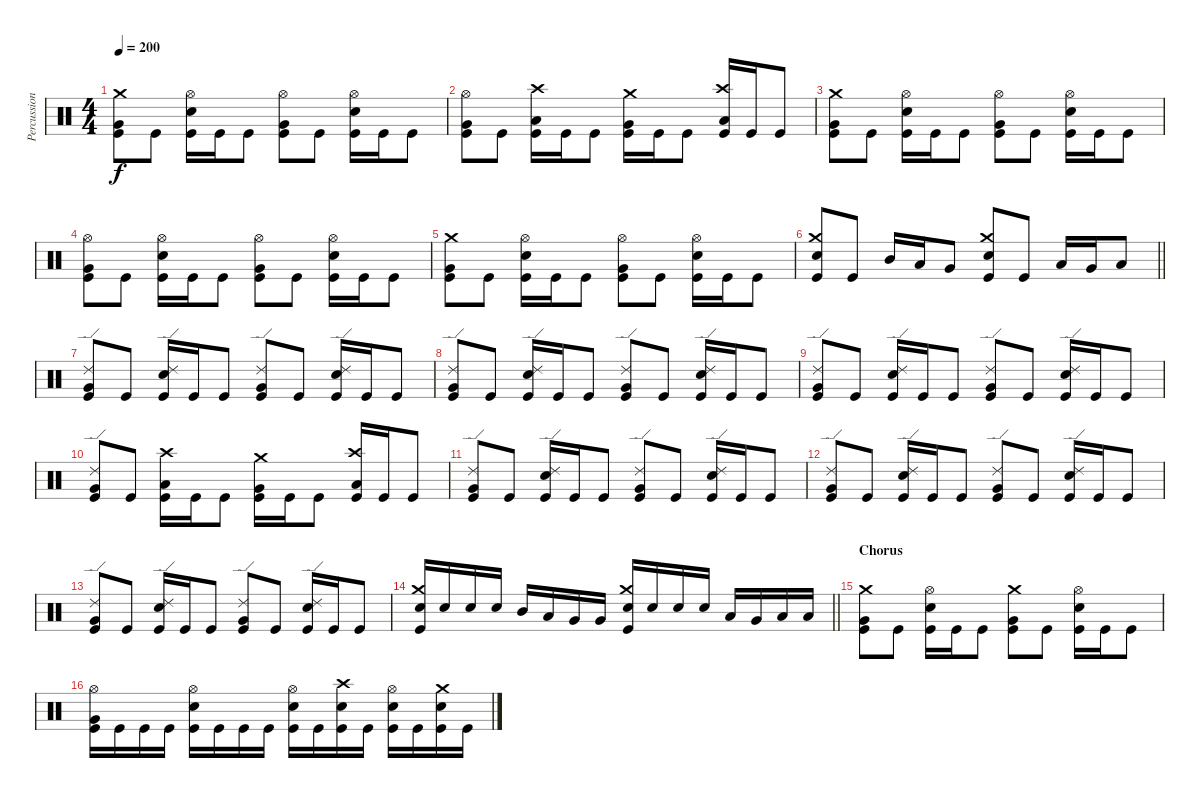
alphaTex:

\track ("Percussion" "Percussion") {instrument percussion}
\staff {score}
\articulation defaults
\ts (4 4)
\tempo 200
\clef neutral
\ks c
("Kick (hit)" "Very Low Tom (hit)" "Crash medium (hit)").8{dy f} "Kick (hit)".8 ("Kick (hit)" "Snare (hit) 2" "Hi-Hat (open)").16 "Kick (hit)".16 "Kick (hit)".8 ("Kick (hit)" "Very Low Tom (hit)" "Hi-Hat (open)").8 "Kick (hit)".8 ("Kick (hit)" "Snare (hit) 2" "Hi-Hat (open)").16 "Kick (hit)".16 "Kick (hit)".8 |
("Kick (hit)" "Very Low Tom (hit)" "Hi-Hat (open)").8 "Kick (hit)".8 ("Low Tom (hit)" "Crash high (hit)" "Kick (hit)").16 "Kick (hit)".16 "Kick (hit)".8 ("Very Low Tom (hit)" "Crash medium (hit)" "Kick (hit)").16 "Kick (hit)".16 "Kick (hit)".8 ("Low Floor Tom (hit)" "Crash high (hit)" "Kick (hit)").16 "Kick (hit)".16 "Kick (hit)".8 |
("Kick (hit)" "Very Low Tom (hit)" "Crash medium (hit)").8 "Kick (hit)".8 ("Kick (hit)" "Snare (hit) 2" "Hi-Hat (open)").16 "Kick (hit)".16 "Kick (hit)".8 ("Kick (hit)" "Very Low Tom (hit)" "Hi-Hat (open)").8 "Kick (hit)".8 ("Kick (hit)" "Snare (hit) 2" "Hi-Hat (open)").16 "Kick (hit)".16 "Kick (hit)".8 |
("Kick (hit)" "Very Low Tom (hit)" "Hi-Hat (open)").8 "Kick (hit)".8 ("Kick (hit)" "Snare (hit) 2" "Hi-Hat (open)").16 "Kick (hit)".16 "Kick (hit)".8 ("Kick (hit)" "Very Low Tom (hit)" "Hi-Hat (open)").8 "Kick (hit)".8 ("Kick (hit)" "Snare (hit) 2" "Hi-Hat (open)").16 "Kick (hit)".16 "Kick (hit)".8 |
("Kick (hit)" "Very Low Tom (hit)" "Crash medium (hit)").8 "Kick (hit)".8 ("Kick (hit)" "Snare (hit) 2" "Hi-Hat (open)").16 "Kick (hit)".16 "Kick (hit)".8 ("Kick (hit)" "Very Low Tom (hit)" "Hi-Hat (open)").8 "Kick (hit)".8 ("Kick (hit)" "Snare (hit) 2" "Hi-Hat (open)").16 "Kick (hit)".16 "Kick (hit)".8 |
\barLineRight lightlight
("Snare (hit) 2" "Crash medium (hit)" "Kick (hit)").8 "Kick (hit)".8 "Mid Tom (hit)".16 "Low Tom (hit)".16 "Very Low Tom (hit)".8 ("Snare (hit) 2" "Crash medium (hit)" "Kick (hit)").8 "Kick (hit)".8 "Low Tom (hit)".16 "Very Low Tom (hit)".16 "Low Floor Tom (hit)".8 |
("Kick (hit)" "Very Low Tom (hit)" "Ride (edge) 2").8 "Kick (hit)".8 ("Kick (hit)" "Snare (hit) 2" "Ride (edge) 2").16 "Kick (hit)".16 "Kick (hit)".8 ("Kick (hit)" "Very Low Tom (hit)" "Ride (edge) 2").8 "Kick (hit)".8 ("Kick (hit)" "Snare (hit) 2" "Ride (edge) 2").16 "Kick (hit)".16 "Kick (hit)".8 |
("Kick (hit)" "Very Low Tom (hit)" "Ride (edge) 2").8 "Kick (hit)".8 ("Kick (hit)" "Snare (hit) 2" "Ride (edge) 2").16 "Kick (hit)".16 "Kick (hit)".8 ("Kick (hit)" "Very Low Tom (hit)" "Ride (edge) 2").8 "Kick (hit)".8 ("Kick (hit)" "Snare (hit) 2" "Ride (edge) 2").16 "Kick (hit)".16 "Kick (hit)".8 |
("Kick (hit)" "Very Low Tom (hit)" "Ride (edge) 2").8 "Kick (hit)".8 ("Kick (hit)" "Snare (hit) 2" "Ride (edge) 2").16 "Kick (hit)".16 "Kick (hit)".8 ("Kick (hit)" "Very Low Tom (hit)" "Ride (edge) 2").8 "Kick (hit)".8 ("Kick (hit)" "Snare (hit) 2" "Ride (edge) 2").16 "Kick (hit)".16 "Kick (hit)".8 |
("Kick (hit)" "Very Low Tom (hit)" "Ride (edge) 2").8 "Kick (hit)".8 ("Low Tom (hit)" "Crash high (hit)" "Kick (hit)").16 "Kick (hit)".16 "Kick (hit)".8 ("Very Low Tom (hit)" "Crash medium (hit)" "Kick (hit)").16 "Kick (hit)".16 "Kick (hit)".8 ("Low Floor Tom (hit)" "Crash high (hit)" "Kick (hit)").16 "Kick (hit)".16 "Kick (hit)".8 |
("Kick (hit)" "Very Low Tom (hit)" "Ride (edge) 2").8 "Kick (hit)".8 ("Kick (hit)" "Snare (hit) 2" "Ride (edge) 2").16 "Kick (hit)".16 "Kick (hit)".8 ("Kick (hit)" "Very Low Tom (hit)" "Ride (edge) 2").8 "Kick (hit)".8 ("Kick (hit)" "Snare (hit) 2" "Ride (edge) 2").16 "Kick (hit)".16 "Kick (hit)".8 |
("Kick (hit)" "Very Low Tom (hit)" "Ride (edge) 2").8 "Kick (hit)".8 ("Kick (hit)" "Snare (hit) 2" "Ride (edge) 2").16 "Kick (hit)".16 "Kick (hit)".8 ("Kick (hit)" "Very Low Tom (hit)" "Ride (edge) 2").8 "Kick (hit)".8 ("Kick (hit)" "Snare (hit) 2" "Ride (edge) 2").16 "Kick (hit)".16 "Kick (hit)".8 |
("Kick (hit)" "Very Low Tom (hit)" "Ride (edge) 2").8 "Kick (hit)".8 ("Kick (hit)" "Snare (hit) 2" "Ride (edge) 2").16 "Kick (hit)".16 "Kick (hit)".8 ("Kick (hit)" "Very Low Tom (hit)" "Ride (edge) 2").8 "Kick (hit)".8 ("Kick (hit)" "Snare (hit) 2" "Ride (edge) 2").16 "Kick (hit)".16 "Kick (hit)".8 |
\barLineRight lightlight
("Snare (hit) 2" "Crash medium (hit)" "Kick (hit)").16 "Snare (hit) 2".16 "Snare (hit) 2".16 "Snare (hit) 2".16 "Mid Tom (hit)".16 "Low Tom (hit)".16 "Very Low Tom (hit)".16 "Very Low Tom (hit)".16 ("Snare (hit) 2" "Crash medium (hit)" "Kick (hit)").16 "Snare (hit) 2".16 "Snare (hit) 2".16 "Snare (hit) 2".16 "Low Tom (hit)".16 "Very Low Tom (hit)".16 "Low Floor Tom (hit)".16 "Low Floor Tom (hit)".16 |
\section ("" "Chorus")
("Kick (hit)" "Very Low Tom (hit)" "Crash medium (hit)").8 "Kick (hit)".8 ("Kick (hit)" "Snare (hit) 2" "Hi-Hat (open)").16 "Kick (hit)".16 "Kick (hit)".8 ("Kick (hit)" "Very Low Tom (hit)" "Crash medium (hit)").8 "Kick (hit)".8 ("Kick (hit)" "Snare (hit) 2" "Hi-Hat (open)").16 "Kick (hit)".16 "Kick (hit)".8 |
("Kick (hit)" "Very Low Tom (hit)" "Hi-Hat (open)").16 "Kick (hit)".16 "Kick (hit)".16 "Kick (hit)".16 ("Kick (hit)" "Snare (hit) 2" "Hi-Hat (open)").16 "Kick (hit)".16 "Kick (hit)".16 "Kick (hit)".16 ("Kick (hit)" "Snare (hit) 2" "Hi-Hat (open)").16 "Kick (hit)".16 ("Kick (hit)" "Snare (hit) 2" "Crash high (hit)").16 "Kick (hit)".16 ("Kick (hit)" "Snare (hit) 2" "Hi-Hat (open)").16 "Kick (hit)".16 ("Kick (hit)" "Snare (hit) 2" "Crash medium (hit)").16 "Kick (hit)".16
